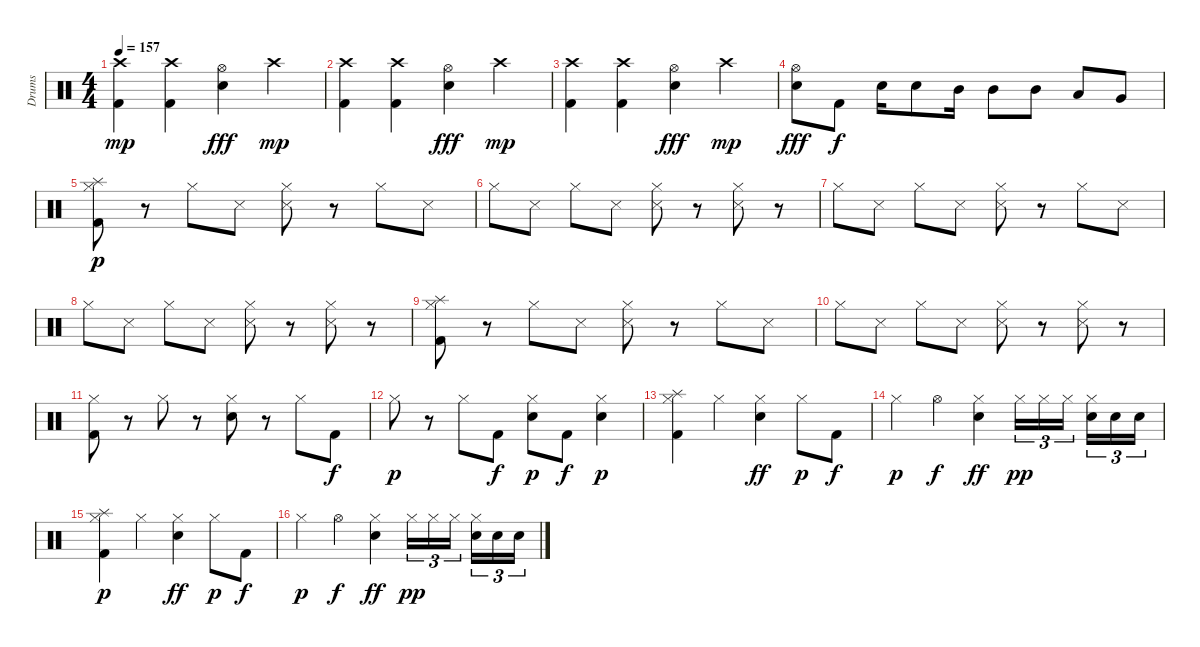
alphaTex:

\track ("Drums" "Drums") {instrument percussion}
\staff {score}
\articulation defaults
\ts (4 4)
\tempo 157
\clef neutral
\ks c
("Crash high (hit)" "Kick (hit) 2").4{dy mp} ("Crash high (hit)" "Kick (hit) 2").4 ("Hi-Hat (open)" "Snare (hit) 2").4{dy fff} "Crash high (hit)".4{dy mp} |
("Crash high (hit)" "Kick (hit) 2").4 ("Crash high (hit)" "Kick (hit) 2").4 ("Hi-Hat (open)" "Snare (hit) 2").4{dy fff} "Crash high (hit)".4{dy mp} |
("Crash high (hit)" "Kick (hit) 2").4 ("Crash high (hit)" "Kick (hit) 2").4 ("Hi-Hat (open)" "Snare (hit) 2").4{dy fff} "Crash high (hit)".4{dy mp} |
("Hi-Hat (open)" "Snare (hit) 2").8{dy fff} "Kick (hit) 2".8{dy f} "Snare (hit) 2".16 "Snare (hit) 2".8 "Mid Tom (hit)".16 "Mid Tom (hit)".8 "Mid Tom (hit)".8 "Low Tom (hit)".8 "Very Low Tom (hit)".8 |
("Hi-Hat (closed)" "Splash (hit)" "Kick (hit) 2").8{dy p volume 13} r.8 "Hi-Hat (closed)".8 "Snare (side stick) 3".8 ("Hi-Hat (closed)" "Snare (side stick) 3").8 r.8 "Hi-Hat (closed)".8 "Snare (side stick) 3".8 |
"Hi-Hat (closed)".8 "Snare (side stick) 3".8 "Hi-Hat (closed)".8 "Snare (side stick) 3".8 ("Hi-Hat (closed)" "Snare (side stick) 3").8 r.8 ("Hi-Hat (closed)" "Snare (side stick) 3").8 r.8 |
"Hi-Hat (closed)".8 "Snare (side stick) 3".8 "Hi-Hat (closed)".8 "Snare (side stick) 3".8 ("Hi-Hat (closed)" "Snare (side stick) 3").8 r.8 "Hi-Hat (closed)".8 "Snare (side stick) 3".8 |
"Hi-Hat (closed)".8 "Snare (side stick) 3".8 "Hi-Hat (closed)".8 "Snare (side stick) 3".8 ("Hi-Hat (closed)" "Snare (side stick) 3").8 r.8 ("Hi-Hat (closed)" "Snare (side stick) 3").8 r.8 |
("Hi-Hat (closed)" "Splash (hit)" "Kick (hit) 2").8 r.8 "Hi-Hat (closed)".8 "Snare (side stick) 3".8 ("Hi-Hat (closed)" "Snare (side stick) 3").8 r.8 "Hi-Hat (closed)".8 "Snare (side stick) 3".8 |
"Hi-Hat (closed)".8 "Snare (side stick) 3".8 "Hi-Hat (closed)".8 "Snare (side stick) 3".8 ("Hi-Hat (closed)" "Snare (side stick) 3").8 r.8 ("Hi-Hat (closed)" "Snare (side stick) 3").8 r.8 |
("Hi-Hat (closed)" "Kick (hit) 2").8 r.8 "Hi-Hat (closed)".8 r.8 ("Hi-Hat (closed)" "Electric Snare (hit)").8 r.8 "Hi-Hat (closed)".8 "Kick (hit) 2".8{dy f} |
"Hi-Hat (closed)".8{dy p} r.8 "Hi-Hat (closed)".8 "Kick (hit) 2".8{dy f} ("Hi-Hat (closed)" "Electric Snare (hit)").8{dy p} "Kick (hit) 2".8{dy f} ("Hi-Hat (closed)" "Electric Snare (hit)").4{dy p} |
("Hi-Hat (closed)" "Splash (hit)" "Kick (hit) 2").4{volume 16} "Hi-Hat (closed)".4 ("Hi-Hat (closed)" "Electric Snare (hit)").4{dy ff} "Hi-Hat (closed)".8{dy p} "Kick (hit) 2".8{dy f} |
"Hi-Hat (closed)".4{dy p} "Hi-Hat (open)".4{dy f} ("Hi-Hat (closed)" "Electric Snare (hit)").4{dy ff} "Hi-Hat (closed)".16{tu (3 2) dy pp} "Hi-Hat (closed)".16{tu (3 2)} "Hi-Hat (closed)".16{tu (3 2)} ("Hi-Hat (closed)" "Electric Snare (hit)").16{tu (3 2)} "Electric Snare (hit)".16{tu (3 2)} "Electric Snare (hit)".16{tu (3 2)} |
("Hi-Hat (closed)" "Splash (hit)" "Kick (hit) 2").4{dy p} "Hi-Hat (closed)".4 ("Hi-Hat (closed)" "Electric Snare (hit)").4{dy ff} "Hi-Hat (closed)".8{dy p} "Kick (hit) 2".8{dy f} |
"Hi-Hat (closed)".4{dy p} "Hi-Hat (open)".4{dy f} ("Hi-Hat (closed)" "Electric Snare (hit)").4{dy ff} "Hi-Hat (closed)".16{tu (3 2) dy pp} "Hi-Hat (closed)".16{tu (3 2)} "Hi-Hat (closed)".16{tu (3 2)} ("Hi-Hat (closed)" "Electric Snare (hit)").16{tu (3 2)} "Electric Snare (hit)".16{tu (3 2)} "Electric Snare (hit)".16{tu (3 2)}
